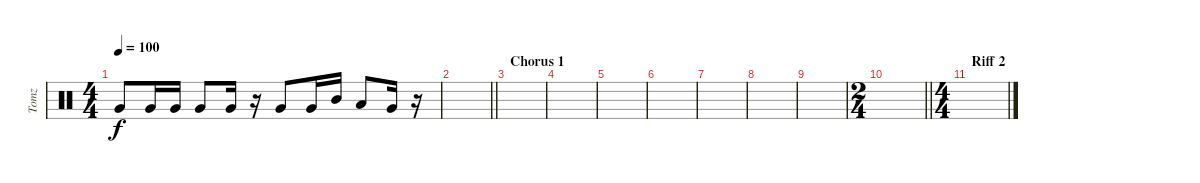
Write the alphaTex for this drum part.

\track ("Tomz" "Tomz") {instrument percussion}
\staff {score}
\articulation defaults
\ts (4 4)
\tempo 100
\clef neutral
\ks c "Very Low Tom (hit)".8{dy f} "Very Low Tom (hit)".16 "Very Low Tom (hit)".16 "Very Low Tom (hit)".8 "Very Low Tom (hit)".16
r.16 "Very Low Tom (hit)".8 "Very Low Tom (hit)".16 "Mid Tom (hit)".16 "Low Tom (hit)".8 "Very Low Tom (hit)".16 r.16 |
\barLineRight lightlight
|
\section ("" "Chorus 1")
|
|
|
|
|
|
|
\ts (2 4)
\barLineRight lightlight
|
\ts (4 4)
\section ("" "Riff 2")
